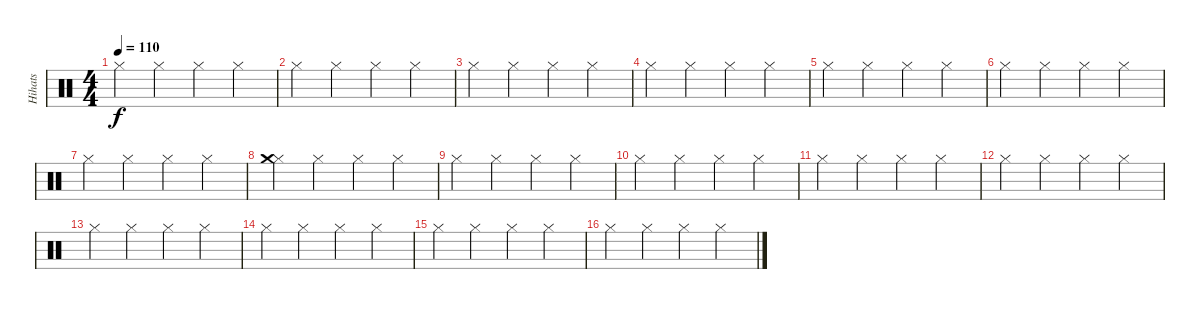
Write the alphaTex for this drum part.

\track ("Hihats" "Hihats") {instrument percussion}
\staff {score}
\articulation defaults
\ts (4 4)
\tempo 110
\clef neutral
\ks c "Hi-Hat (closed)".4{dy f} "Hi-Hat (closed)".4 "Hi-Hat (closed)".4 "Hi-Hat (closed)".4
|
"Hi-Hat (closed)".4 "Hi-Hat (closed)".4 "Hi-Hat (closed)".4 "Hi-Hat (closed)".4 |
"Hi-Hat (closed)".4 "Hi-Hat (closed)".4 "Hi-Hat (closed)".4 "Hi-Hat (closed)".4 |
"Hi-Hat (closed)".4 "Hi-Hat (closed)".4 "Hi-Hat (closed)".4 "Hi-Hat (closed)".4 |
"Hi-Hat (closed)".4 "Hi-Hat (closed)".4 "Hi-Hat (closed)".4 "Hi-Hat (closed)".4 |
"Hi-Hat (closed)".4 "Hi-Hat (closed)".4 "Hi-Hat (closed)".4 "Hi-Hat (closed)".4 |
"Hi-Hat (closed)".4 "Hi-Hat (closed)".4 "Hi-Hat (closed)".4 "Hi-Hat (closed)".4 |
("Hi-Hat (closed)" "Crash medium (hit)").4 "Hi-Hat (closed)".4 "Hi-Hat (closed)".4 "Hi-Hat (closed)".4 |
"Hi-Hat (closed)".4 "Hi-Hat (closed)".4 "Hi-Hat (closed)".4 "Hi-Hat (closed)".4 |
"Hi-Hat (closed)".4 "Hi-Hat (closed)".4 "Hi-Hat (closed)".4 "Hi-Hat (closed)".4 |
"Hi-Hat (closed)".4 "Hi-Hat (closed)".4 "Hi-Hat (closed)".4 "Hi-Hat (closed)".4 |
"Hi-Hat (closed)".4 "Hi-Hat (closed)".4 "Hi-Hat (closed)".4 "Hi-Hat (closed)".4 |
"Hi-Hat (closed)".4 "Hi-Hat (closed)".4 "Hi-Hat (closed)".4 "Hi-Hat (closed)".4 |
"Hi-Hat (closed)".4 "Hi-Hat (closed)".4 "Hi-Hat (closed)".4 "Hi-Hat (closed)".4 |
"Hi-Hat (closed)".4 "Hi-Hat (closed)".4 "Hi-Hat (closed)".4 "Hi-Hat (closed)".4 |
"Hi-Hat (closed)".4 "Hi-Hat (closed)".4 "Hi-Hat (closed)".4 "Hi-Hat (closed)".4
